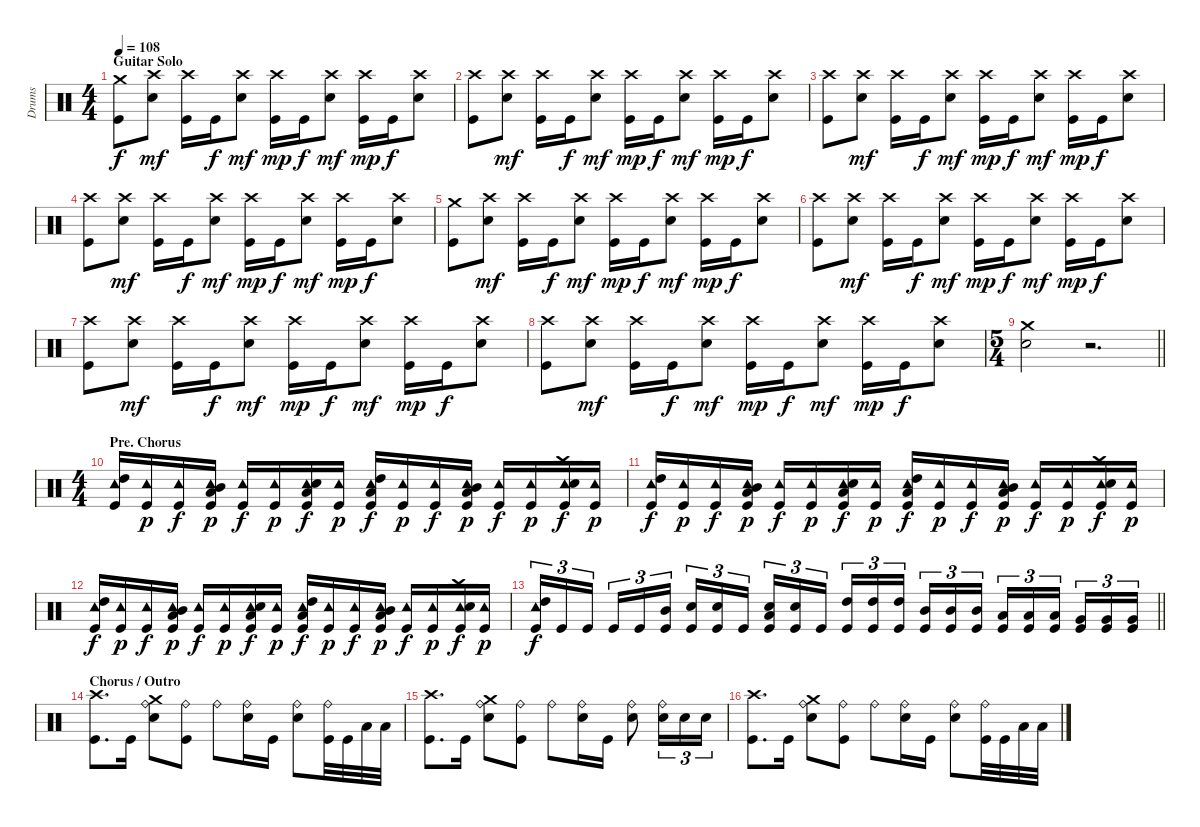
\track ("Drums" "Drums") {instrument percussion}
\staff {score}
\articulation defaults
\ts (4 4)
\section ("" "Guitar Solo")
\tempo 108
\clef neutral
\ks c
("Crash medium (hit)" "Kick (hit)").8{dy f} ("Crash high (hit)" "Electric Snare (hit)").8{dy mf} ("Crash high (hit)" "Kick (hit)").16 "Kick (hit)".16{dy f} ("Crash high (hit)" "Electric Snare (hit)").8{dy mf} ("Crash high (hit)" "Kick (hit)").16{dy mp} "Kick (hit)".16{dy f} ("Crash high (hit)" "Electric Snare (hit)").8{dy mf} ("Crash high (hit)" "Kick (hit)").16{dy mp} "Kick (hit)".16{dy f} ("Crash high (hit)" "Electric Snare (hit)").8 |
("Crash high (hit)" "Kick (hit)").8 ("Crash high (hit)" "Electric Snare (hit)").8{dy mf} ("Crash high (hit)" "Kick (hit)").16 "Kick (hit)".16{dy f} ("Crash high (hit)" "Electric Snare (hit)").8{dy mf} ("Crash high (hit)" "Kick (hit)").16{dy mp} "Kick (hit)".16{dy f} ("Crash high (hit)" "Electric Snare (hit)").8{dy mf} ("Crash high (hit)" "Kick (hit)").16{dy mp} "Kick (hit)".16{dy f} ("Crash high (hit)" "Electric Snare (hit)").8 |
("Crash high (hit)" "Kick (hit)").8 ("Crash high (hit)" "Electric Snare (hit)").8{dy mf} ("Crash high (hit)" "Kick (hit)").16 "Kick (hit)".16{dy f} ("Crash high (hit)" "Electric Snare (hit)").8{dy mf} ("Crash high (hit)" "Kick (hit)").16{dy mp} "Kick (hit)".16{dy f} ("Crash high (hit)" "Electric Snare (hit)").8{dy mf} ("Crash high (hit)" "Kick (hit)").16{dy mp} "Kick (hit)".16{dy f} ("Crash high (hit)" "Electric Snare (hit)").8 |
("Crash high (hit)" "Kick (hit)").8 ("Crash high (hit)" "Electric Snare (hit)").8{dy mf} ("Crash high (hit)" "Kick (hit)").16 "Kick (hit)".16{dy f} ("Crash high (hit)" "Electric Snare (hit)").8{dy mf} ("Crash high (hit)" "Kick (hit)").16{dy mp} "Kick (hit)".16{dy f} ("Crash high (hit)" "Electric Snare (hit)").8{dy mf} ("Crash high (hit)" "Kick (hit)").16{dy mp} "Kick (hit)".16{dy f} ("Crash high (hit)" "Electric Snare (hit)").8 |
("Crash medium (hit)" "Kick (hit)").8 ("Crash high (hit)" "Electric Snare (hit)").8{dy mf} ("Crash high (hit)" "Kick (hit)").16 "Kick (hit)".16{dy f} ("Crash high (hit)" "Electric Snare (hit)").8{dy mf} ("Crash high (hit)" "Kick (hit)").16{dy mp} "Kick (hit)".16{dy f} ("Crash high (hit)" "Electric Snare (hit)").8{dy mf} ("Crash high (hit)" "Kick (hit)").16{dy mp} "Kick (hit)".16{dy f} ("Crash high (hit)" "Electric Snare (hit)").8 |
("Crash high (hit)" "Kick (hit)").8 ("Crash high (hit)" "Electric Snare (hit)").8{dy mf} ("Crash high (hit)" "Kick (hit)").16 "Kick (hit)".16{dy f} ("Crash high (hit)" "Electric Snare (hit)").8{dy mf} ("Crash high (hit)" "Kick (hit)").16{dy mp} "Kick (hit)".16{dy f} ("Crash high (hit)" "Electric Snare (hit)").8{dy mf} ("Crash high (hit)" "Kick (hit)").16{dy mp} "Kick (hit)".16{dy f} ("Crash high (hit)" "Electric Snare (hit)").8 |
("Crash high (hit)" "Kick (hit)").8 ("Crash high (hit)" "Electric Snare (hit)").8{dy mf} ("Crash high (hit)" "Kick (hit)").16 "Kick (hit)".16{dy f} ("Crash high (hit)" "Electric Snare (hit)").8{dy mf} ("Crash high (hit)" "Kick (hit)").16{dy mp} "Kick (hit)".16{dy f} ("Crash high (hit)" "Electric Snare (hit)").8{dy mf} ("Crash high (hit)" "Kick (hit)").16{dy mp} "Kick (hit)".16{dy f} ("Crash high (hit)" "Electric Snare (hit)").8 |
("Crash high (hit)" "Kick (hit)").8 ("Crash high (hit)" "Electric Snare (hit)").8{dy mf} ("Crash high (hit)" "Kick (hit)").16 "Kick (hit)".16{dy f} ("Crash high (hit)" "Electric Snare (hit)").8{dy mf} ("Crash high (hit)" "Kick (hit)").16{dy mp} "Kick (hit)".16{dy f} ("Crash high (hit)" "Electric Snare (hit)").8{dy mf} ("Crash high (hit)" "Kick (hit)").16{dy mp} "Kick (hit)".16{dy f} ("Crash high (hit)" "Electric Snare (hit)").8 |
\ts (5 4)
\barLineRight lightlight
("Crash medium (hit)" "Electric Snare (hit)").2 r.2{d} |
\ts (4 4)
\section ("" "Pre. Chorus")
("Tambourine (hit)" "High Tom (hit)" "Kick (hit)").16 ("Tambourine (hit)" "Kick (hit)").16{dy p} ("Tambourine (hit)" "Kick (hit)").16{dy f} ("Tambourine (hit)" "Mid Tom (hit)" "Low Tom (hit)" "Kick (hit)").16{dy p} ("Tambourine (hit)" "Kick (hit)").16{dy f} ("Tambourine (hit)" "Kick (hit)").16{dy p} ("Tambourine (hit)" "Low Tom (hit)" "Electric Snare (hit)" "Kick (hit)").16{dy f} ("Tambourine (hit)" "Kick (hit)").16{dy p} ("Tambourine (hit)" "High Tom (hit)" "Low Tom (hit)" "Kick (hit)").16{dy f} ("Tambourine (hit)" "Kick (hit)").16{dy p} ("Tambourine (hit)" "Kick (hit)").16{dy f} ("Tambourine (hit)" "Mid Tom (hit)" "Low Tom (hit)" "Kick (hit)").16{dy p} ("Tambourine (hit)" "Kick (hit)").16{dy f} ("Tambourine (hit)" "Kick (hit)").16{dy p} ("Tambourine (hit)" "Crash high (hit)" "Electric Snare (hit)" "Kick (hit)").16{dy f} ("Tambourine (hit)" "Kick (hit)").16{dy p} |
("Tambourine (hit)" "High Tom (hit)" "Kick (hit)").16{dy f} ("Tambourine (hit)" "Kick (hit)").16{dy p} ("Tambourine (hit)" "Kick (hit)").16{dy f} ("Tambourine (hit)" "Mid Tom (hit)" "Low Tom (hit)" "Kick (hit)").16{dy p} ("Tambourine (hit)" "Kick (hit)").16{dy f} ("Tambourine (hit)" "Kick (hit)").16{dy p} ("Tambourine (hit)" "Low Tom (hit)" "Electric Snare (hit)" "Kick (hit)").16{dy f} ("Tambourine (hit)" "Kick (hit)").16{dy p} ("Tambourine (hit)" "High Tom (hit)" "Low Tom (hit)" "Kick (hit)").16{dy f} ("Tambourine (hit)" "Kick (hit)").16{dy p} ("Tambourine (hit)" "Kick (hit)").16{dy f} ("Tambourine (hit)" "Mid Tom (hit)" "Low Tom (hit)" "Kick (hit)").16{dy p} ("Tambourine (hit)" "Kick (hit)").16{dy f} ("Tambourine (hit)" "Kick (hit)").16{dy p} ("Tambourine (hit)" "Crash high (hit)" "Electric Snare (hit)" "Kick (hit)").16{dy f} ("Tambourine (hit)" "Kick (hit)").16{dy p} |
("Tambourine (hit)" "High Tom (hit)" "Kick (hit)").16{dy f} ("Tambourine (hit)" "Kick (hit)").16{dy p} ("Tambourine (hit)" "Kick (hit)").16{dy f} ("Tambourine (hit)" "Mid Tom (hit)" "Low Tom (hit)" "Kick (hit)").16{dy p} ("Tambourine (hit)" "Kick (hit)").16{dy f} ("Tambourine (hit)" "Kick (hit)").16{dy p} ("Tambourine (hit)" "Low Tom (hit)" "Electric Snare (hit)" "Kick (hit)").16{dy f} ("Tambourine (hit)" "Kick (hit)").16{dy p} ("Tambourine (hit)" "High Tom (hit)" "Low Tom (hit)" "Kick (hit)").16{dy f} ("Tambourine (hit)" "Kick (hit)").16{dy p} ("Tambourine (hit)" "Kick (hit)").16{dy f} ("Tambourine (hit)" "Mid Tom (hit)" "Low Tom (hit)" "Kick (hit)").16{dy p} ("Tambourine (hit)" "Kick (hit)").16{dy f} ("Tambourine (hit)" "Kick (hit)").16{dy p} ("Tambourine (hit)" "Crash high (hit)" "Electric Snare (hit)" "Kick (hit)").16{dy f} ("Tambourine (hit)" "Kick (hit)").16{dy p} |
\barLineRight lightlight
("Tambourine (hit)" "High Tom (hit)" "Kick (hit)").16{tu (3 2) dy f} "Kick (hit)".16{tu (3 2)} "Kick (hit)".16{tu (3 2) beam splitsecondary} "Kick (hit)".16{tu (3 2)} "Kick (hit)".16{tu (3 2)} ("Mid Tom (hit)" "Kick (hit)").16{tu (3 2)} ("Electric Snare (hit)" "Kick (hit)").16{tu (3 2)} ("Electric Snare (hit)" "Kick (hit)").16{tu (3 2)} "Kick (hit)".16{tu (3 2) beam splitsecondary} ("Low Tom (hit)" "Electric Snare (hit)" "Kick (hit)").16{tu (3 2)} ("Electric Snare (hit)" "Kick (hit)").16{tu (3 2)} "Kick (hit)".16{tu (3 2)} ("High Tom (hit)" "Kick (hit)").16{tu (3 2)} ("High Tom (hit)" "Kick (hit)").16{tu (3 2)} ("High Tom (hit)" "Kick (hit)").16{tu (3 2) beam splitsecondary} ("Mid Tom (hit)" "Kick (hit)").16{tu (3 2)} ("Mid Tom (hit)" "Kick (hit)").16{tu (3 2)} ("Mid Tom (hit)" "Kick (hit)").16{tu (3 2)} ("Low Tom (hit)" "Kick (hit)").16{tu (3 2)} ("Low Tom (hit)" "Kick (hit)").16{tu (3 2)} ("Low Tom (hit)" "Kick (hit)").16{tu (3 2) beam splitsecondary} ("Very Low Tom (hit)" "Kick (hit)").16{tu (3 2)} ("Very Low Tom (hit)" "Kick (hit)").16{tu (3 2)} ("Very Low Tom (hit)" "Kick (hit)").16{tu (3 2)} |
\section ("" "Chorus / Outro")
("Crash high (hit)" "Kick (hit)").8{d} "Kick (hit)".16 ("Crash medium (hit)" "Ride (bell)" "Electric Snare (hit)").8 ("Ride (bell)" "Kick (hit)").8 "Ride (bell)".8 ("Ride (bell)" "Electric Snare (hit)").16 "Kick (hit)".16 ("Ride (bell)" "Electric Snare (hit)").8 ("Ride (bell)" "Kick (hit)").32 "Kick (hit)".32 "Low Tom (hit)".32 "Low Tom (hit)".32 |
("Crash high (hit)" "Kick (hit)").8{d} "Kick (hit)".16 ("Crash medium (hit)" "Ride (bell)" "Electric Snare (hit)").8 ("Ride (bell)" "Kick (hit)").8 "Ride (bell)".8 ("Ride (bell)" "Electric Snare (hit)").16 "Kick (hit)".16 ("Ride (bell)" "Electric Snare (hit)").8 ("Ride (bell)" "Electric Snare (hit)").16{tu (3 2)} "Electric Snare (hit)".16{tu (3 2)} "Electric Snare (hit)".16{tu (3 2)} |
("Crash high (hit)" "Kick (hit)").8{d} "Kick (hit)".16 ("Crash medium (hit)" "Ride (bell)" "Electric Snare (hit)").8 ("Ride (bell)" "Kick (hit)").8 "Ride (bell)".8 ("Ride (bell)" "Electric Snare (hit)").16 "Kick (hit)".16 ("Ride (bell)" "Electric Snare (hit)").8 ("Ride (bell)" "Kick (hit)").32 "Kick (hit)".32 "Low Tom (hit)".32 "Low Tom (hit)".32
